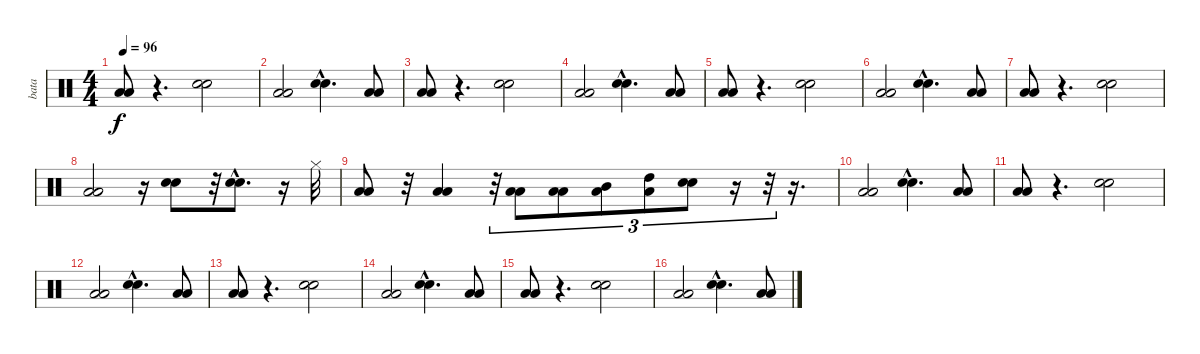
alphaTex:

\track ("bata" "bata") {instrument percussion}
\staff {score}
\articulation defaults
\ts (4 4)
\tempo 96
\clef neutral
\ks c
("Low Floor Tom (hit)" "Low Floor Tom (hit)").8{dy f} r.4{d} ("Electric Snare (hit)" "Electric Snare (hit)").2 |
("Low Floor Tom (hit)" "Low Floor Tom (hit)").2 ("Electric Snare (hit)"{hac} "Electric Snare (hit)"{hac}).4{d} ("Low Floor Tom (hit)" "Low Floor Tom (hit)").8 |
("Low Floor Tom (hit)" "Low Floor Tom (hit)").8 r.4{d} ("Electric Snare (hit)" "Electric Snare (hit)").2 |
("Low Floor Tom (hit)" "Low Floor Tom (hit)").2 ("Electric Snare (hit)"{hac} "Electric Snare (hit)"{hac}).4{d} ("Low Floor Tom (hit)" "Low Floor Tom (hit)").8 |
("Low Floor Tom (hit)" "Low Floor Tom (hit)").8 r.4{d} ("Electric Snare (hit)" "Electric Snare (hit)").2 |
("Low Floor Tom (hit)" "Low Floor Tom (hit)").2 ("Electric Snare (hit)"{hac} "Electric Snare (hit)"{hac}).4{d} ("Low Floor Tom (hit)" "Low Floor Tom (hit)").8 |
("Low Floor Tom (hit)" "Low Floor Tom (hit)").8 r.4{d} ("Electric Snare (hit)" "Electric Snare (hit)").2 |
("Low Floor Tom (hit)" "Low Floor Tom (hit)").2 r.16 ("Electric Snare (hit)" "Electric Snare (hit)").8 r.32 ("Electric Snare (hit)"{hac} "Electric Snare (hit)"{hac}).8{d} r.16 "Hi-Hat (closed)".32 |
("Low Floor Tom (hit)" "Low Tom (hit)").8 r.32 ("Low Floor Tom (hit)" "Low Tom (hit)").4 r.32{tu (3 2)} ("Low Floor Tom (hit)" "Low Tom (hit)").8{tu (3 2)} ("Low Floor Tom (hit)" "Low Tom (hit)").8{tu (3 2)} ("Low Tom (hit)" "Mid Tom (hit)").8{tu (3 2)} ("Low Tom (hit)" "High Tom (hit)").8{tu (3 2)} ("Electric Snare (hit)" "Electric Snare (hit)").8{tu (3 2)} r.16{tu (3 2)} r.32{tu (3 2)} r.16{d} |
("Low Floor Tom (hit)" "Low Floor Tom (hit)").2 ("Electric Snare (hit)"{hac} "Electric Snare (hit)"{hac}).4{d} ("Low Floor Tom (hit)" "Low Floor Tom (hit)").8 |
("Low Floor Tom (hit)" "Low Floor Tom (hit)").8 r.4{d} ("Electric Snare (hit)" "Electric Snare (hit)").2 |
("Low Floor Tom (hit)" "Low Floor Tom (hit)").2 ("Electric Snare (hit)"{hac} "Electric Snare (hit)"{hac}).4{d} ("Low Floor Tom (hit)" "Low Floor Tom (hit)").8 |
("Low Floor Tom (hit)" "Low Floor Tom (hit)").8 r.4{d} ("Electric Snare (hit)" "Electric Snare (hit)").2 |
("Low Floor Tom (hit)" "Low Floor Tom (hit)").2 ("Electric Snare (hit)"{hac} "Electric Snare (hit)"{hac}).4{d} ("Low Floor Tom (hit)" "Low Floor Tom (hit)").8 |
("Low Floor Tom (hit)" "Low Floor Tom (hit)").8 r.4{d} ("Electric Snare (hit)" "Electric Snare (hit)").2 |
("Low Floor Tom (hit)" "Low Floor Tom (hit)").2 ("Electric Snare (hit)"{hac} "Electric Snare (hit)"{hac}).4{d} ("Low Floor Tom (hit)" "Low Floor Tom (hit)").8
